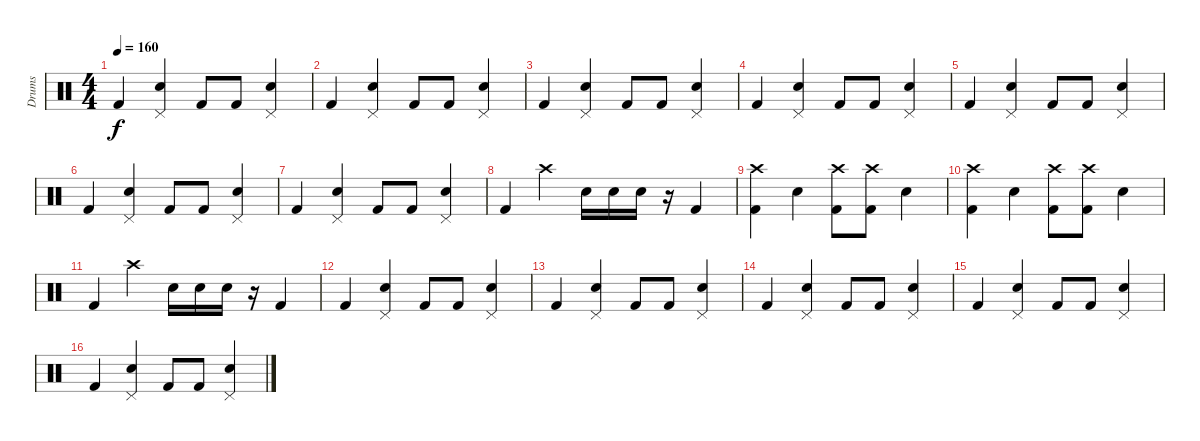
\track ("Drums" "Drums") {instrument percussion}
\staff {score}
\articulation defaults
\ts (4 4)
\tempo 160
\clef neutral
\ks c "Kick (hit) 2".4{dy f}
("Pedal Hi-Hat (hit)" "Electric Snare (hit)").4 "Kick (hit) 2".8 "Kick (hit) 2".8 ("Pedal Hi-Hat (hit)" "Electric Snare (hit)").4 |
"Kick (hit) 2".4 ("Pedal Hi-Hat (hit)" "Electric Snare (hit)").4 "Kick (hit) 2".8 "Kick (hit) 2".8 ("Pedal Hi-Hat (hit)" "Electric Snare (hit)").4 |
"Kick (hit) 2".4 ("Pedal Hi-Hat (hit)" "Electric Snare (hit)").4 "Kick (hit) 2".8 "Kick (hit) 2".8 ("Pedal Hi-Hat (hit)" "Electric Snare (hit)").4 |
"Kick (hit) 2".4 ("Pedal Hi-Hat (hit)" "Electric Snare (hit)").4 "Kick (hit) 2".8 "Kick (hit) 2".8 ("Pedal Hi-Hat (hit)" "Electric Snare (hit)").4 |
"Kick (hit) 2".4 ("Pedal Hi-Hat (hit)" "Electric Snare (hit)").4 "Kick (hit) 2".8 "Kick (hit) 2".8 ("Pedal Hi-Hat (hit)" "Electric Snare (hit)").4 |
"Kick (hit) 2".4 ("Pedal Hi-Hat (hit)" "Electric Snare (hit)").4 "Kick (hit) 2".8 "Kick (hit) 2".8 ("Pedal Hi-Hat (hit)" "Electric Snare (hit)").4 |
"Kick (hit) 2".4 ("Pedal Hi-Hat (hit)" "Electric Snare (hit)").4 "Kick (hit) 2".8 "Kick (hit) 2".8 ("Pedal Hi-Hat (hit)" "Electric Snare (hit)").4 |
"Kick (hit) 2".4 "Crash high (hit)".4 "Snare (hit) 2".16 "Snare (hit) 2".16 "Snare (hit) 2".16 r.16 "Kick (hit) 2".4 |
("Kick (hit) 2" "Crash high (hit)").4 "Snare (hit) 2".4 ("Kick (hit) 2" "Crash high (hit)").8 ("Kick (hit) 2" "Crash high (hit)").8 "Snare (hit) 2".4 |
("Kick (hit) 2" "Crash high (hit)").4 "Snare (hit) 2".4 ("Kick (hit) 2" "Crash high (hit)").8 ("Kick (hit) 2" "Crash high (hit)").8 "Snare (hit) 2".4 |
"Kick (hit) 2".4 "Crash high (hit)".4 "Snare (hit) 2".16 "Snare (hit) 2".16 "Snare (hit) 2".16 r.16 "Kick (hit) 2".4 |
"Kick (hit) 2".4 ("Pedal Hi-Hat (hit)" "Electric Snare (hit)").4 "Kick (hit) 2".8 "Kick (hit) 2".8 ("Pedal Hi-Hat (hit)" "Electric Snare (hit)").4 |
"Kick (hit) 2".4 ("Pedal Hi-Hat (hit)" "Electric Snare (hit)").4 "Kick (hit) 2".8 "Kick (hit) 2".8 ("Pedal Hi-Hat (hit)" "Electric Snare (hit)").4 |
"Kick (hit) 2".4 ("Pedal Hi-Hat (hit)" "Electric Snare (hit)").4 "Kick (hit) 2".8 "Kick (hit) 2".8 ("Pedal Hi-Hat (hit)" "Electric Snare (hit)").4 |
"Kick (hit) 2".4 ("Pedal Hi-Hat (hit)" "Electric Snare (hit)").4 "Kick (hit) 2".8 "Kick (hit) 2".8 ("Pedal Hi-Hat (hit)" "Electric Snare (hit)").4 |
"Kick (hit) 2".4 ("Pedal Hi-Hat (hit)" "Electric Snare (hit)").4 "Kick (hit) 2".8 "Kick (hit) 2".8 ("Pedal Hi-Hat (hit)" "Electric Snare (hit)").4
